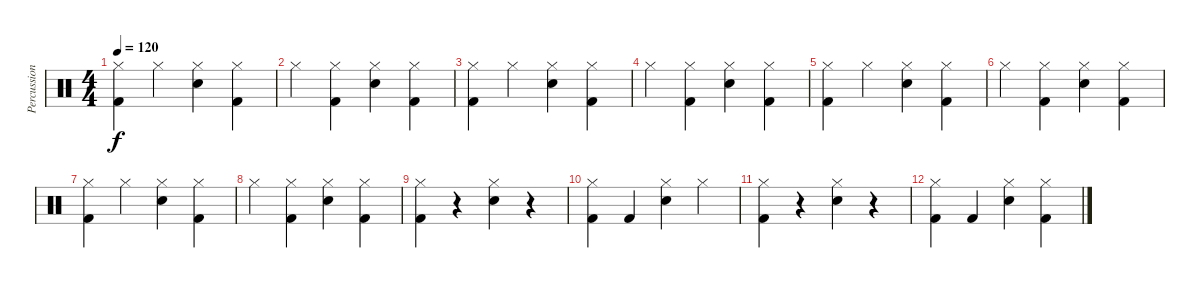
\track ("Percussions" "Percussion") {instrument percussion}
\staff {score}
\articulation defaults
\ts (4 4)
\tempo 120
\clef neutral
\ks c
("Hi-Hat (closed)" "Kick (hit) 2").4{dy f} "Hi-Hat (closed)".4 ("Hi-Hat (closed)" "Snare (hit) 2").4 ("Hi-Hat (closed)" "Kick (hit) 2").4 |
"Hi-Hat (closed)".4 ("Hi-Hat (closed)" "Kick (hit) 2").4 ("Hi-Hat (closed)" "Snare (hit) 2").4 ("Hi-Hat (closed)" "Kick (hit) 2").4 |
("Hi-Hat (closed)" "Kick (hit) 2").4 "Hi-Hat (closed)".4 ("Hi-Hat (closed)" "Snare (hit) 2").4 ("Hi-Hat (closed)" "Kick (hit) 2").4 |
"Hi-Hat (closed)".4 ("Hi-Hat (closed)" "Kick (hit) 2").4 ("Hi-Hat (closed)" "Snare (hit) 2").4 ("Hi-Hat (closed)" "Kick (hit) 2").4 |
("Hi-Hat (closed)" "Kick (hit) 2").4 "Hi-Hat (closed)".4 ("Hi-Hat (closed)" "Snare (hit) 2").4 ("Hi-Hat (closed)" "Kick (hit) 2").4 |
"Hi-Hat (closed)".4 ("Hi-Hat (closed)" "Kick (hit) 2").4 ("Hi-Hat (closed)" "Snare (hit) 2").4 ("Hi-Hat (closed)" "Kick (hit) 2").4 |
("Hi-Hat (closed)" "Kick (hit) 2").4 "Hi-Hat (closed)".4 ("Hi-Hat (closed)" "Snare (hit) 2").4 ("Hi-Hat (closed)" "Kick (hit) 2").4 |
"Hi-Hat (closed)".4 ("Hi-Hat (closed)" "Kick (hit) 2").4 ("Hi-Hat (closed)" "Snare (hit) 2").4 ("Hi-Hat (closed)" "Kick (hit) 2").4 |
("Hi-Hat (closed)" "Kick (hit) 2").4 r.4 ("Hi-Hat (closed)" "Snare (hit) 2").4 r.4 |
("Hi-Hat (closed)" "Kick (hit) 2").4 "Kick (hit) 2".4 ("Hi-Hat (closed)" "Snare (hit) 2").4 "Hi-Hat (closed)".4 |
("Hi-Hat (closed)" "Kick (hit) 2").4 r.4 ("Hi-Hat (closed)" "Snare (hit) 2").4 r.4 |
("Hi-Hat (closed)" "Kick (hit) 2").4 "Kick (hit) 2".4 ("Hi-Hat (closed)" "Snare (hit) 2").4 ("Hi-Hat (closed)" "Kick (hit) 2").4
